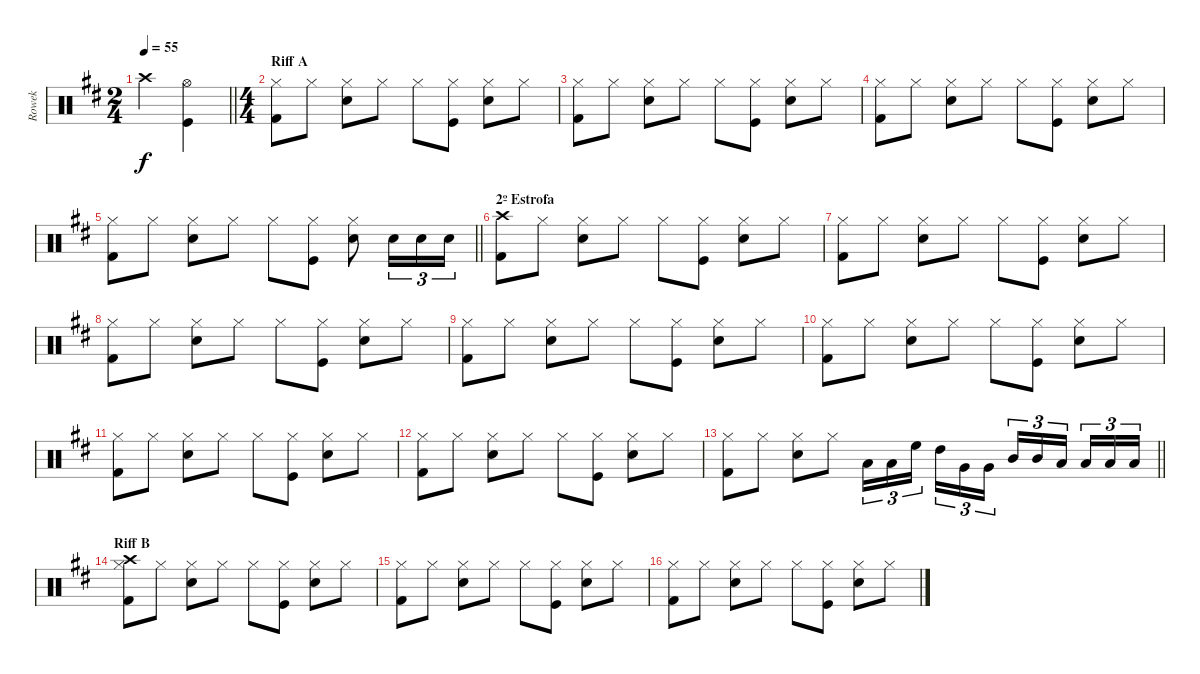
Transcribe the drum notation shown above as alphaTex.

\track ("Rowek" "Rowek") {instrument percussion}
\staff {score}
\articulation defaults
\ts (2 4)
\tempo 55
\clef neutral
\barLineRight lightlight
\ks d "Crash high (hit)".4{dy f}
("Hi-Hat (open)" "Kick (hit)").4 |
\ts (4 4)
\section ("" "Riff A")
("Hi-Hat (closed)" "Kick (hit) 2").8 "Hi-Hat (closed)".8 ("Hi-Hat (closed)" "Electric Snare (hit)").8 "Hi-Hat (closed)".8 "Hi-Hat (closed)".8 ("Hi-Hat (closed)" "Kick (hit)").8 ("Hi-Hat (closed)" "Snare (hit) 2").8 "Hi-Hat (closed)".8 |
("Hi-Hat (closed)" "Kick (hit) 2").8 "Hi-Hat (closed)".8 ("Hi-Hat (closed)" "Electric Snare (hit)").8 "Hi-Hat (closed)".8 "Hi-Hat (closed)".8 ("Hi-Hat (closed)" "Kick (hit)").8 ("Hi-Hat (closed)" "Snare (hit) 2").8 "Hi-Hat (closed)".8 |
("Hi-Hat (closed)" "Kick (hit) 2").8 "Hi-Hat (closed)".8 ("Hi-Hat (closed)" "Electric Snare (hit)").8 "Hi-Hat (closed)".8 "Hi-Hat (closed)".8 ("Hi-Hat (closed)" "Kick (hit)").8 ("Hi-Hat (closed)" "Snare (hit) 2").8 "Hi-Hat (closed)".8 |
\barLineRight lightlight
("Hi-Hat (closed)" "Kick (hit) 2").8 "Hi-Hat (closed)".8 ("Hi-Hat (closed)" "Electric Snare (hit)").8 "Hi-Hat (closed)".8 "Hi-Hat (closed)".8 ("Hi-Hat (closed)" "Kick (hit)").8 ("Hi-Hat (closed)" "Snare (hit) 2").8 "Electric Snare (hit)".16{tu (3 2)} "Electric Snare (hit)".16{tu (3 2)} "Electric Snare (hit)".16{tu (3 2)} |
\section ("" "2º Estrofa")
("Crash high (hit)" "Kick (hit) 2").8 "Hi-Hat (closed)".8 ("Hi-Hat (closed)" "Electric Snare (hit)").8 "Hi-Hat (closed)".8 "Hi-Hat (closed)".8 ("Hi-Hat (closed)" "Kick (hit)").8 ("Hi-Hat (closed)" "Snare (hit) 2").8 "Hi-Hat (closed)".8 |
("Hi-Hat (closed)" "Kick (hit) 2").8 "Hi-Hat (closed)".8 ("Hi-Hat (closed)" "Electric Snare (hit)").8 "Hi-Hat (closed)".8 "Hi-Hat (closed)".8 ("Hi-Hat (closed)" "Kick (hit)").8 ("Hi-Hat (closed)" "Snare (hit) 2").8 "Hi-Hat (closed)".8 |
("Hi-Hat (closed)" "Kick (hit) 2").8 "Hi-Hat (closed)".8 ("Hi-Hat (closed)" "Electric Snare (hit)").8 "Hi-Hat (closed)".8 "Hi-Hat (closed)".8 ("Hi-Hat (closed)" "Kick (hit)").8 ("Hi-Hat (closed)" "Snare (hit) 2").8 "Hi-Hat (closed)".8 |
("Hi-Hat (closed)" "Kick (hit) 2").8 "Hi-Hat (closed)".8 ("Hi-Hat (closed)" "Electric Snare (hit)").8 "Hi-Hat (closed)".8 "Hi-Hat (closed)".8 ("Hi-Hat (closed)" "Kick (hit)").8 ("Hi-Hat (closed)" "Snare (hit) 2").8 "Hi-Hat (closed)".8 |
("Hi-Hat (closed)" "Kick (hit) 2").8 "Hi-Hat (closed)".8 ("Hi-Hat (closed)" "Electric Snare (hit)").8 "Hi-Hat (closed)".8 "Hi-Hat (closed)".8 ("Hi-Hat (closed)" "Kick (hit)").8 ("Hi-Hat (closed)" "Snare (hit) 2").8 "Hi-Hat (closed)".8 |
("Hi-Hat (closed)" "Kick (hit) 2").8 "Hi-Hat (closed)".8 ("Hi-Hat (closed)" "Electric Snare (hit)").8 "Hi-Hat (closed)".8 "Hi-Hat (closed)".8 ("Hi-Hat (closed)" "Kick (hit)").8 ("Hi-Hat (closed)" "Snare (hit) 2").8 "Hi-Hat (closed)".8 |
("Hi-Hat (closed)" "Kick (hit) 2").8 "Hi-Hat (closed)".8 ("Hi-Hat (closed)" "Electric Snare (hit)").8 "Hi-Hat (closed)".8 "Hi-Hat (closed)".8 ("Hi-Hat (closed)" "Kick (hit)").8 ("Hi-Hat (closed)" "Snare (hit) 2").8 "Hi-Hat (closed)".8 |
\barLineRight lightlight
("Hi-Hat (closed)" "Kick (hit) 2").8 "Hi-Hat (closed)".8 ("Hi-Hat (closed)" "Electric Snare (hit)").8 "Hi-Hat (closed)".8 "Low Tom (hit)".16{tu (3 2)} "Low Tom (hit)".16{tu (3 2)} "High Floor Tom (hit)".16{tu (3 2) beam splitsecondary} "High Tom (hit)".16{tu (3 2)} "Very Low Tom (hit)".16{tu (3 2)} "Very Low Tom (hit)".16{tu (3 2)} "Mid Tom (hit)".16{tu (3 2)} "Mid Tom (hit)".16{tu (3 2)} "Low Tom (hit)".16{tu (3 2) beam splitsecondary} "Low Floor Tom (hit)".16{tu (3 2)} "Low Floor Tom (hit)".16{tu (3 2)} "Low Floor Tom (hit)".16{tu (3 2)} |
\section ("" "Riff B")
("Hi-Hat (closed)" "Crash high (hit)" "Kick (hit) 2").8 "Hi-Hat (closed)".8 ("Hi-Hat (closed)" "Electric Snare (hit)").8 "Hi-Hat (closed)".8 "Hi-Hat (closed)".8 ("Hi-Hat (closed)" "Kick (hit)").8 ("Hi-Hat (closed)" "Snare (hit) 2").8 "Hi-Hat (closed)".8 |
("Hi-Hat (closed)" "Kick (hit) 2").8 "Hi-Hat (closed)".8 ("Hi-Hat (closed)" "Electric Snare (hit)").8 "Hi-Hat (closed)".8 "Hi-Hat (closed)".8 ("Hi-Hat (closed)" "Kick (hit)").8 ("Hi-Hat (closed)" "Snare (hit) 2").8 "Hi-Hat (closed)".8 |
("Hi-Hat (closed)" "Kick (hit) 2").8 "Hi-Hat (closed)".8 ("Hi-Hat (closed)" "Electric Snare (hit)").8 "Hi-Hat (closed)".8 "Hi-Hat (closed)".8 ("Hi-Hat (closed)" "Kick (hit)").8 ("Hi-Hat (closed)" "Snare (hit) 2").8 "Hi-Hat (closed)".8
